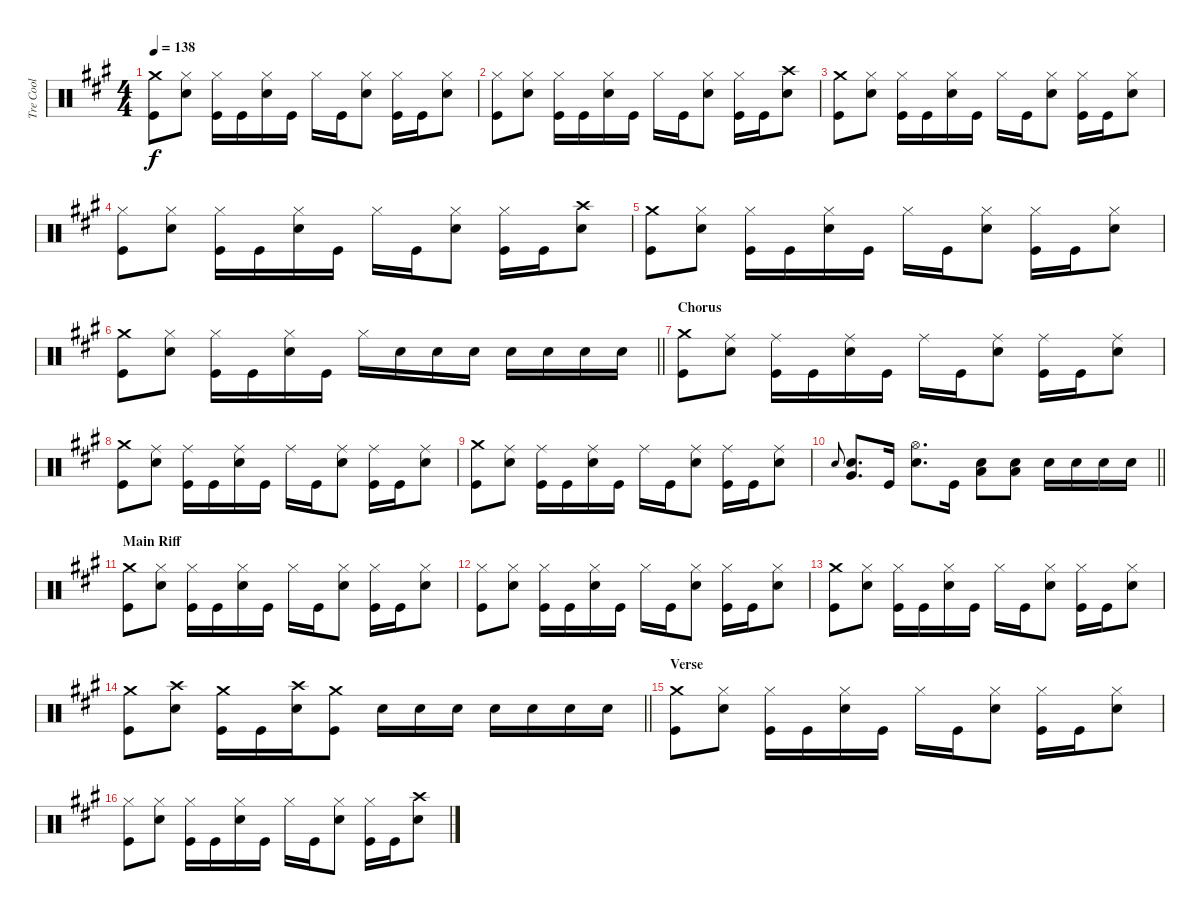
\track ("Tre Cool" "Tre Cool") {instrument percussion}
\staff {score}
\articulation defaults
\ts (4 4)
\tempo 138
\clef neutral
\ks a
("Crash medium (hit)" "Kick (hit)").8{dy f} ("Hi-Hat (closed)" "Electric Snare (hit)").8 ("Hi-Hat (closed)" "Kick (hit)").16 "Kick (hit)".16 ("Hi-Hat (closed)" "Electric Snare (hit)").16 "Kick (hit)".16 "Hi-Hat (closed)".16 "Kick (hit)".16 ("Hi-Hat (closed)" "Electric Snare (hit)").8 ("Hi-Hat (closed)" "Kick (hit)").16 "Kick (hit)".16 ("Hi-Hat (closed)" "Electric Snare (hit)").8 |
("Hi-Hat (closed)" "Kick (hit)").8 ("Hi-Hat (closed)" "Electric Snare (hit)").8 ("Hi-Hat (closed)" "Kick (hit)").16 "Kick (hit)".16 ("Hi-Hat (closed)" "Electric Snare (hit)").16 "Kick (hit)".16 "Hi-Hat (closed)".16 "Kick (hit)".16 ("Hi-Hat (closed)" "Electric Snare (hit)").8 ("Hi-Hat (closed)" "Kick (hit)").16 "Kick (hit)".16 ("Crash high (hit)" "Electric Snare (hit)").8 |
("Crash medium (hit)" "Kick (hit)").8 ("Hi-Hat (closed)" "Electric Snare (hit)").8 ("Hi-Hat (closed)" "Kick (hit)").16 "Kick (hit)".16 ("Hi-Hat (closed)" "Electric Snare (hit)").16 "Kick (hit)".16 "Hi-Hat (closed)".16 "Kick (hit)".16 ("Hi-Hat (closed)" "Electric Snare (hit)").8 ("Hi-Hat (closed)" "Kick (hit)").16 "Kick (hit)".16 ("Hi-Hat (closed)" "Electric Snare (hit)").8 |
("Hi-Hat (closed)" "Kick (hit)").8 ("Hi-Hat (closed)" "Electric Snare (hit)").8 ("Hi-Hat (closed)" "Kick (hit)").16 "Kick (hit)".16 ("Hi-Hat (closed)" "Electric Snare (hit)").16 "Kick (hit)".16 "Hi-Hat (closed)".16 "Kick (hit)".16 ("Hi-Hat (closed)" "Electric Snare (hit)").8 ("Hi-Hat (closed)" "Kick (hit)").16 "Kick (hit)".16 ("Crash high (hit)" "Electric Snare (hit)").8 |
("Crash medium (hit)" "Kick (hit)").8 ("Hi-Hat (closed)" "Electric Snare (hit)").8 ("Hi-Hat (closed)" "Kick (hit)").16 "Kick (hit)".16 ("Hi-Hat (closed)" "Electric Snare (hit)").16 "Kick (hit)".16 "Hi-Hat (closed)".16 "Kick (hit)".16 ("Hi-Hat (closed)" "Electric Snare (hit)").8 ("Hi-Hat (closed)" "Kick (hit)").16 "Kick (hit)".16 ("Hi-Hat (closed)" "Electric Snare (hit)").8 |
\barLineRight lightlight
("Crash medium (hit)" "Kick (hit)").8 ("Hi-Hat (closed)" "Electric Snare (hit)").8 ("Hi-Hat (closed)" "Kick (hit)").16 "Kick (hit)".16 ("Hi-Hat (closed)" "Electric Snare (hit)").16 "Kick (hit)".16 "Hi-Hat (closed)".16 "Electric Snare (hit)".16 "Electric Snare (hit)".16 "Electric Snare (hit)".16 "Electric Snare (hit)".16 "Electric Snare (hit)".16 "Electric Snare (hit)".16 "Electric Snare (hit)".16 |
\section ("" "Chorus")
("Crash medium (hit)" "Kick (hit)").8 ("Ride (middle)" "Electric Snare (hit)").8 ("Ride (middle)" "Kick (hit)").16 "Kick (hit)".16 ("Ride (middle)" "Electric Snare (hit)").16 "Kick (hit)".16 "Ride (middle)".16 "Kick (hit)".16 ("Ride (middle)" "Electric Snare (hit)").8 ("Ride (middle)" "Kick (hit)").16 "Kick (hit)".16 ("Ride (middle)" "Electric Snare (hit)").8 |
("Crash medium (hit)" "Kick (hit)").8 ("Ride (middle)" "Electric Snare (hit)").8 ("Ride (middle)" "Kick (hit)").16 "Kick (hit)".16 ("Ride (middle)" "Electric Snare (hit)").16 "Kick (hit)".16 "Ride (middle)".16 "Kick (hit)".16 ("Ride (middle)" "Electric Snare (hit)").8 ("Ride (middle)" "Kick (hit)").16 "Kick (hit)".16 ("Ride (middle)" "Electric Snare (hit)").8 |
("Crash medium (hit)" "Kick (hit)").8 ("Ride (middle)" "Electric Snare (hit)").8 ("Ride (middle)" "Kick (hit)").16 "Kick (hit)".16 ("Ride (middle)" "Electric Snare (hit)").16 "Kick (hit)".16 "Ride (middle)".16 "Kick (hit)".16 ("Ride (middle)" "Electric Snare (hit)").8 ("Ride (middle)" "Kick (hit)").16 "Kick (hit)".16 ("Ride (middle)" "Electric Snare (hit)").8 |
\barLineRight lightlight "Electric Snare (hit)".8{gr onbeat}
("Very Low Tom (hit)" "Electric Snare (hit)").8{d} "Kick (hit)".16 ("Hi-Hat (open)" "Electric Snare (hit)").8{d} "Kick (hit)".16 ("Low Floor Tom (hit)" "Electric Snare (hit)").8 ("Low Floor Tom (hit)" "Electric Snare (hit)").8 "Electric Snare (hit)".16 "Electric Snare (hit)".16 "Electric Snare (hit)".16 "Electric Snare (hit)".16 |
\section ("" "Main Riff")
("Crash medium (hit)" "Kick (hit)").8 ("Hi-Hat (closed)" "Electric Snare (hit)").8 ("Hi-Hat (closed)" "Kick (hit)").16 "Kick (hit)".16 ("Hi-Hat (closed)" "Electric Snare (hit)").16 "Kick (hit)".16 "Hi-Hat (closed)".16 "Kick (hit)".16 ("Hi-Hat (closed)" "Electric Snare (hit)").8 ("Hi-Hat (closed)" "Kick (hit)").16 "Kick (hit)".16 ("Hi-Hat (closed)" "Electric Snare (hit)").8 |
("Hi-Hat (closed)" "Kick (hit)").8 ("Hi-Hat (closed)" "Electric Snare (hit)").8 ("Hi-Hat (closed)" "Kick (hit)").16 "Kick (hit)".16 ("Hi-Hat (closed)" "Electric Snare (hit)").16 "Kick (hit)".16 "Hi-Hat (closed)".16 "Kick (hit)".16 ("Hi-Hat (closed)" "Electric Snare (hit)").8 ("Hi-Hat (closed)" "Kick (hit)").16 "Kick (hit)".16 ("Hi-Hat (closed)" "Electric Snare (hit)").8 |
("Crash medium (hit)" "Kick (hit)").8 ("Hi-Hat (closed)" "Electric Snare (hit)").8 ("Hi-Hat (closed)" "Kick (hit)").16 "Kick (hit)".16 ("Hi-Hat (closed)" "Electric Snare (hit)").16 "Kick (hit)".16 "Hi-Hat (closed)".16 "Kick (hit)".16 ("Hi-Hat (closed)" "Electric Snare (hit)").8 ("Hi-Hat (closed)" "Kick (hit)").16 "Kick (hit)".16 ("Hi-Hat (closed)" "Electric Snare (hit)").8 |
\barLineRight lightlight
("Crash medium (hit)" "Kick (hit)").8 ("Crash high (hit)" "Electric Snare (hit)").8 ("Crash medium (hit)" "Kick (hit)").16 "Kick (hit)".16 ("Crash high (hit)" "Electric Snare (hit)").16 ("Crash medium (hit)" "Kick (hit)").8 "Electric Snare (hit)".16 "Electric Snare (hit)".16 "Electric Snare (hit)".16 "Electric Snare (hit)".16 "Electric Snare (hit)".16 "Electric Snare (hit)".16 "Electric Snare (hit)".16 |
\section ("" "Verse")
("Crash medium (hit)" "Kick (hit)").8 ("Hi-Hat (closed)" "Electric Snare (hit)").8 ("Hi-Hat (closed)" "Kick (hit)").16 "Kick (hit)".16 ("Hi-Hat (closed)" "Electric Snare (hit)").16 "Kick (hit)".16 "Hi-Hat (closed)".16 "Kick (hit)".16 ("Hi-Hat (closed)" "Electric Snare (hit)").8 ("Hi-Hat (closed)" "Kick (hit)").16 "Kick (hit)".16 ("Hi-Hat (closed)" "Electric Snare (hit)").8 |
("Hi-Hat (closed)" "Kick (hit)").8 ("Hi-Hat (closed)" "Electric Snare (hit)").8 ("Hi-Hat (closed)" "Kick (hit)").16 "Kick (hit)".16 ("Hi-Hat (closed)" "Electric Snare (hit)").16 "Kick (hit)".16 "Hi-Hat (closed)".16 "Kick (hit)".16 ("Hi-Hat (closed)" "Electric Snare (hit)").8 ("Hi-Hat (closed)" "Kick (hit)").16 "Kick (hit)".16 ("Crash high (hit)" "Electric Snare (hit)").8
